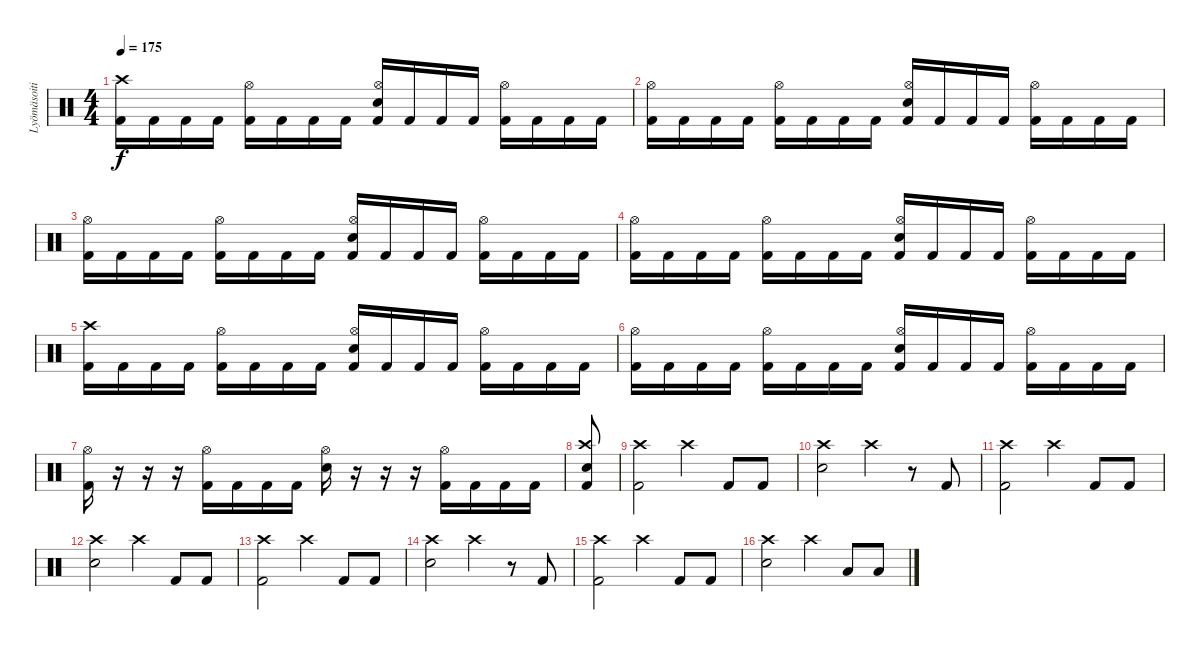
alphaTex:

\track ("Lyömäsoitin" "Lyömäsoiti") {instrument percussion}
\staff {score}
\articulation defaults
\ts (4 4)
\tempo 175
\clef neutral
\ks c
("Kick (hit) 2" "Crash high (hit)").16{dy f} "Kick (hit) 2".16 "Kick (hit) 2".16 "Kick (hit) 2".16 ("Kick (hit) 2" "Hi-Hat (open)").16 "Kick (hit) 2".16 "Kick (hit) 2".16 "Kick (hit) 2".16 ("Kick (hit) 2" "Electric Snare (hit)" "Hi-Hat (open)").16 "Kick (hit) 2".16 "Kick (hit) 2".16 "Kick (hit) 2".16 ("Kick (hit) 2" "Hi-Hat (open)").16 "Kick (hit) 2".16 "Kick (hit) 2".16 "Kick (hit) 2".16 |
("Kick (hit) 2" "Hi-Hat (open)").16 "Kick (hit) 2".16 "Kick (hit) 2".16 "Kick (hit) 2".16 ("Kick (hit) 2" "Hi-Hat (open)").16 "Kick (hit) 2".16 "Kick (hit) 2".16 "Kick (hit) 2".16 ("Kick (hit) 2" "Electric Snare (hit)" "Hi-Hat (open)").16 "Kick (hit) 2".16 "Kick (hit) 2".16 "Kick (hit) 2".16 ("Kick (hit) 2" "Hi-Hat (open)").16 "Kick (hit) 2".16 "Kick (hit) 2".16 "Kick (hit) 2".16 |
("Kick (hit) 2" "Hi-Hat (open)").16 "Kick (hit) 2".16 "Kick (hit) 2".16 "Kick (hit) 2".16 ("Kick (hit) 2" "Hi-Hat (open)").16 "Kick (hit) 2".16 "Kick (hit) 2".16 "Kick (hit) 2".16 ("Kick (hit) 2" "Electric Snare (hit)" "Hi-Hat (open)").16 "Kick (hit) 2".16 "Kick (hit) 2".16 "Kick (hit) 2".16 ("Kick (hit) 2" "Hi-Hat (open)").16 "Kick (hit) 2".16 "Kick (hit) 2".16 "Kick (hit) 2".16 |
("Kick (hit) 2" "Hi-Hat (open)").16 "Kick (hit) 2".16 "Kick (hit) 2".16 "Kick (hit) 2".16 ("Kick (hit) 2" "Hi-Hat (open)").16 "Kick (hit) 2".16 "Kick (hit) 2".16 "Kick (hit) 2".16 ("Kick (hit) 2" "Electric Snare (hit)" "Hi-Hat (open)").16 "Kick (hit) 2".16 "Kick (hit) 2".16 "Kick (hit) 2".16 ("Kick (hit) 2" "Hi-Hat (open)").16 "Kick (hit) 2".16 "Kick (hit) 2".16 "Kick (hit) 2".16 |
("Kick (hit) 2" "Crash high (hit)").16 "Kick (hit) 2".16 "Kick (hit) 2".16 "Kick (hit) 2".16 ("Kick (hit) 2" "Hi-Hat (open)").16 "Kick (hit) 2".16 "Kick (hit) 2".16 "Kick (hit) 2".16 ("Kick (hit) 2" "Electric Snare (hit)" "Hi-Hat (open)").16 "Kick (hit) 2".16 "Kick (hit) 2".16 "Kick (hit) 2".16 ("Kick (hit) 2" "Hi-Hat (open)").16 "Kick (hit) 2".16 "Kick (hit) 2".16 "Kick (hit) 2".16 |
("Kick (hit) 2" "Hi-Hat (open)").16 "Kick (hit) 2".16 "Kick (hit) 2".16 "Kick (hit) 2".16 ("Kick (hit) 2" "Hi-Hat (open)").16 "Kick (hit) 2".16 "Kick (hit) 2".16 "Kick (hit) 2".16 ("Kick (hit) 2" "Electric Snare (hit)" "Hi-Hat (open)").16 "Kick (hit) 2".16 "Kick (hit) 2".16 "Kick (hit) 2".16 ("Kick (hit) 2" "Hi-Hat (open)").16 "Kick (hit) 2".16 "Kick (hit) 2".16 "Kick (hit) 2".16 |
("Kick (hit) 2" "Hi-Hat (open)").16 r.16 r.16 r.16 ("Kick (hit) 2" "Hi-Hat (open)").16 "Kick (hit) 2".16 "Kick (hit) 2".16 "Kick (hit) 2".16 ("Electric Snare (hit)" "Hi-Hat (open)").16 r.16 r.16 r.16 ("Kick (hit) 2" "Hi-Hat (open)").16 "Kick (hit) 2".16 "Kick (hit) 2".16 "Kick (hit) 2".16 |
("Kick (hit) 2" "Electric Snare (hit)" "Crash high (hit)").8 |
("Kick (hit) 2" "Crash high (hit)").2 "Crash high (hit)".4 "Kick (hit) 2".8 "Kick (hit) 2".8 |
("Electric Snare (hit)" "Crash high (hit)").2 "Crash high (hit)".4 r.8 "Kick (hit) 2".8 |
("Kick (hit) 2" "Crash high (hit)").2 "Crash high (hit)".4 "Kick (hit) 2".8 "Kick (hit) 2".8 |
("Electric Snare (hit)" "Crash high (hit)").2 "Crash high (hit)".4 "Kick (hit) 2".8 "Kick (hit) 2".8 |
("Kick (hit) 2" "Crash high (hit)").2 "Crash high (hit)".4 "Kick (hit) 2".8 "Kick (hit) 2".8 |
("Electric Snare (hit)" "Crash high (hit)").2 "Crash high (hit)".4 r.8 "Kick (hit) 2".8 |
("Kick (hit) 2" "Crash high (hit)").2 "Crash high (hit)".4 "Kick (hit) 2".8 "Kick (hit) 2".8 |
("Electric Snare (hit)" "Crash high (hit)").2 "Crash high (hit)".4 "Low Tom (hit)".8 "Low Floor Tom (hit)".8
